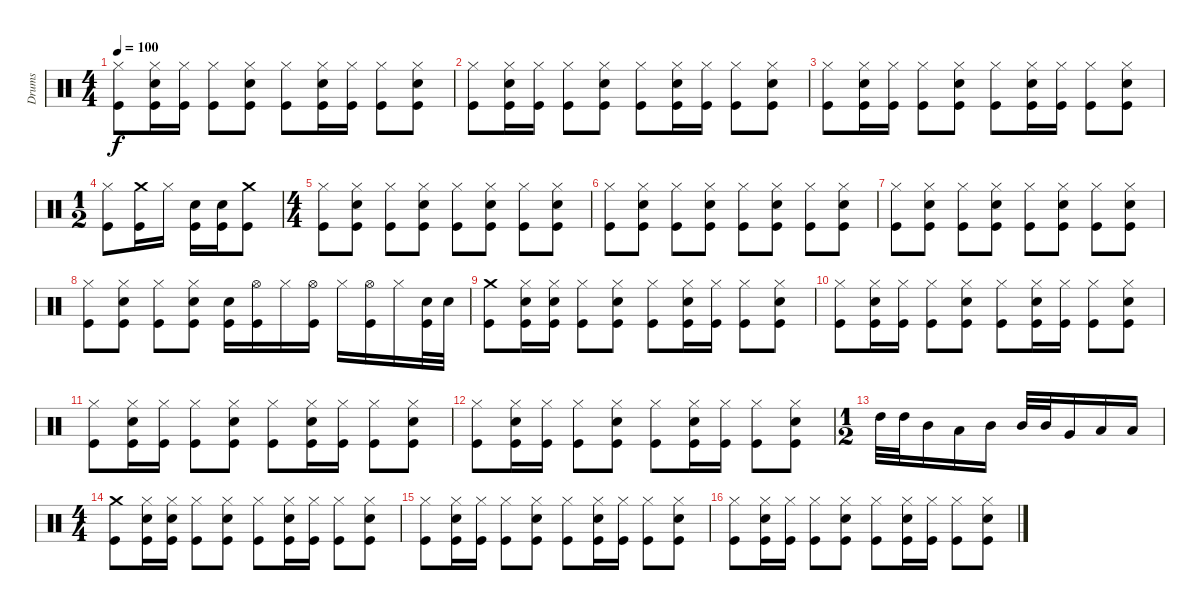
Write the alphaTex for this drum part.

\track ("Drums" "Drums") {instrument percussion}
\staff {score}
\articulation defaults
\ts (4 4)
\tempo 100
\clef neutral
\ks c
("Hi-Hat (closed)" "Kick (hit)").8{dy f} ("Electric Snare (hit)" "Hi-Hat (closed)" "Kick (hit)").16 ("Hi-Hat (closed)" "Kick (hit)").16 ("Hi-Hat (closed)" "Kick (hit)").8 ("Electric Snare (hit)" "Hi-Hat (closed)" "Kick (hit)").8 ("Hi-Hat (closed)" "Kick (hit)").8 ("Electric Snare (hit)" "Hi-Hat (closed)" "Kick (hit)").16 ("Hi-Hat (closed)" "Kick (hit)").16 ("Hi-Hat (closed)" "Kick (hit)").8 ("Electric Snare (hit)" "Hi-Hat (closed)" "Kick (hit)").8 |
("Hi-Hat (closed)" "Kick (hit)").8 ("Electric Snare (hit)" "Hi-Hat (closed)" "Kick (hit)").16 ("Hi-Hat (closed)" "Kick (hit)").16 ("Hi-Hat (closed)" "Kick (hit)").8 ("Electric Snare (hit)" "Hi-Hat (closed)" "Kick (hit)").8 ("Hi-Hat (closed)" "Kick (hit)").8 ("Electric Snare (hit)" "Hi-Hat (closed)" "Kick (hit)").16 ("Hi-Hat (closed)" "Kick (hit)").16 ("Hi-Hat (closed)" "Kick (hit)").8 ("Electric Snare (hit)" "Hi-Hat (closed)" "Kick (hit)").8 |
("Hi-Hat (closed)" "Kick (hit)").8 ("Electric Snare (hit)" "Hi-Hat (closed)" "Kick (hit)").16 ("Hi-Hat (closed)" "Kick (hit)").16 ("Hi-Hat (closed)" "Kick (hit)").8 ("Electric Snare (hit)" "Hi-Hat (closed)" "Kick (hit)").8 ("Hi-Hat (closed)" "Kick (hit)").8 ("Electric Snare (hit)" "Hi-Hat (closed)" "Kick (hit)").16 ("Hi-Hat (closed)" "Kick (hit)").16 ("Hi-Hat (closed)" "Kick (hit)").8 ("Electric Snare (hit)" "Hi-Hat (closed)" "Kick (hit)").8 |
\ts (1 2)
("Hi-Hat (closed)" "Kick (hit)").8 ("Crash medium (hit)" "Kick (hit)").16 "Hi-Hat (closed)".16 ("Electric Snare (hit)" "Kick (hit)").16 ("Electric Snare (hit)" "Kick (hit)").16 ("Crash medium (hit)" "Kick (hit)").8 |
\ts (4 4)
("Hi-Hat (closed)" "Kick (hit)").8 ("Electric Snare (hit)" "Hi-Hat (closed)" "Kick (hit)").8 ("Hi-Hat (closed)" "Kick (hit)").8 ("Electric Snare (hit)" "Hi-Hat (closed)" "Kick (hit)").8 ("Hi-Hat (closed)" "Kick (hit)").8 ("Electric Snare (hit)" "Hi-Hat (closed)" "Kick (hit)").8 ("Hi-Hat (closed)" "Kick (hit)").8 ("Electric Snare (hit)" "Hi-Hat (closed)" "Kick (hit)").8 |
("Hi-Hat (closed)" "Kick (hit)").8 ("Electric Snare (hit)" "Hi-Hat (closed)" "Kick (hit)").8 ("Hi-Hat (closed)" "Kick (hit)").8 ("Electric Snare (hit)" "Hi-Hat (closed)" "Kick (hit)").8 ("Hi-Hat (closed)" "Kick (hit)").8 ("Electric Snare (hit)" "Hi-Hat (closed)" "Kick (hit)").8 ("Hi-Hat (closed)" "Kick (hit)").8 ("Electric Snare (hit)" "Hi-Hat (closed)" "Kick (hit)").8 |
("Hi-Hat (closed)" "Kick (hit)").8 ("Electric Snare (hit)" "Hi-Hat (closed)" "Kick (hit)").8 ("Hi-Hat (closed)" "Kick (hit)").8 ("Electric Snare (hit)" "Hi-Hat (closed)" "Kick (hit)").8 ("Hi-Hat (closed)" "Kick (hit)").8 ("Electric Snare (hit)" "Hi-Hat (closed)" "Kick (hit)").8 ("Hi-Hat (closed)" "Kick (hit)").8 ("Electric Snare (hit)" "Hi-Hat (closed)" "Kick (hit)").8 |
("Hi-Hat (closed)" "Kick (hit)").8 ("Electric Snare (hit)" "Hi-Hat (closed)" "Kick (hit)").8 ("Hi-Hat (closed)" "Kick (hit)").8 ("Electric Snare (hit)" "Hi-Hat (closed)" "Kick (hit)").8 ("Electric Snare (hit)" "Kick (hit)").16 ("Hi-Hat (open)" "Kick (hit)").16 "Hi-Hat (closed)".16 ("Hi-Hat (open)" "Kick (hit)").16 "Hi-Hat (closed)".16 ("Hi-Hat (open)" "Kick (hit)").16 "Hi-Hat (closed)".16 ("Electric Snare (hit)" "Kick (hit)").32 "Electric Snare (hit)".32 |
("Crash medium (hit)" "Kick (hit)").8 ("Electric Snare (hit)" "Hi-Hat (closed)" "Kick (hit)").16 ("Electric Snare (hit)" "Hi-Hat (closed)" "Kick (hit)").16 ("Hi-Hat (closed)" "Kick (hit)").8 ("Electric Snare (hit)" "Hi-Hat (closed)" "Kick (hit)").8 ("Hi-Hat (closed)" "Kick (hit)").8 ("Electric Snare (hit)" "Hi-Hat (closed)" "Kick (hit)").16 ("Hi-Hat (closed)" "Kick (hit)").16 ("Hi-Hat (closed)" "Kick (hit)").8 ("Electric Snare (hit)" "Hi-Hat (closed)" "Kick (hit)").8 |
("Hi-Hat (closed)" "Kick (hit)").8 ("Electric Snare (hit)" "Hi-Hat (closed)" "Kick (hit)").16 ("Hi-Hat (closed)" "Kick (hit)").16 ("Hi-Hat (closed)" "Kick (hit)").8 ("Electric Snare (hit)" "Hi-Hat (closed)" "Kick (hit)").8 ("Hi-Hat (closed)" "Kick (hit)").8 ("Electric Snare (hit)" "Hi-Hat (closed)" "Kick (hit)").16 ("Hi-Hat (closed)" "Kick (hit)").16 ("Hi-Hat (closed)" "Kick (hit)").8 ("Electric Snare (hit)" "Hi-Hat (closed)" "Kick (hit)").8 |
("Hi-Hat (closed)" "Kick (hit)").8 ("Electric Snare (hit)" "Hi-Hat (closed)" "Kick (hit)").16 ("Hi-Hat (closed)" "Kick (hit)").16 ("Hi-Hat (closed)" "Kick (hit)").8 ("Electric Snare (hit)" "Hi-Hat (closed)" "Kick (hit)").8 ("Hi-Hat (closed)" "Kick (hit)").8 ("Electric Snare (hit)" "Hi-Hat (closed)" "Kick (hit)").16 ("Hi-Hat (closed)" "Kick (hit)").16 ("Hi-Hat (closed)" "Kick (hit)").8 ("Electric Snare (hit)" "Hi-Hat (closed)" "Kick (hit)").8 |
("Hi-Hat (closed)" "Kick (hit)").8 ("Electric Snare (hit)" "Hi-Hat (closed)" "Kick (hit)").16 ("Hi-Hat (closed)" "Kick (hit)").16 ("Hi-Hat (closed)" "Kick (hit)").8 ("Electric Snare (hit)" "Hi-Hat (closed)" "Kick (hit)").8 ("Hi-Hat (closed)" "Kick (hit)").8 ("Electric Snare (hit)" "Hi-Hat (closed)" "Kick (hit)").16 ("Hi-Hat (closed)" "Kick (hit)").16 ("Hi-Hat (closed)" "Kick (hit)").8 ("Electric Snare (hit)" "Hi-Hat (closed)" "Kick (hit)").8 |
\ts (1 2)
"High Tom (hit)".32 "High Tom (hit)".32 "Mid Tom (hit)".16 "Low Tom (hit)".16 "Mid Tom (hit)".16 "Mid Tom (hit)".32 "Mid Tom (hit)".32 "Very Low Tom (hit)".16 "Low Tom (hit)".16 "Low Floor Tom (hit)".16 |
\ts (4 4)
("Crash medium (hit)" "Kick (hit)").8 ("Electric Snare (hit)" "Hi-Hat (closed)" "Kick (hit)").16 ("Electric Snare (hit)" "Hi-Hat (closed)" "Kick (hit)").16 ("Hi-Hat (closed)" "Kick (hit)").8 ("Electric Snare (hit)" "Hi-Hat (closed)" "Kick (hit)").8 ("Hi-Hat (closed)" "Kick (hit)").8 ("Electric Snare (hit)" "Hi-Hat (closed)" "Kick (hit)").16 ("Hi-Hat (closed)" "Kick (hit)").16 ("Hi-Hat (closed)" "Kick (hit)").8 ("Electric Snare (hit)" "Hi-Hat (closed)" "Kick (hit)").8 |
("Hi-Hat (closed)" "Kick (hit)").8 ("Electric Snare (hit)" "Hi-Hat (closed)" "Kick (hit)").16 ("Hi-Hat (closed)" "Kick (hit)").16 ("Hi-Hat (closed)" "Kick (hit)").8 ("Electric Snare (hit)" "Hi-Hat (closed)" "Kick (hit)").8 ("Hi-Hat (closed)" "Kick (hit)").8 ("Electric Snare (hit)" "Hi-Hat (closed)" "Kick (hit)").16 ("Hi-Hat (closed)" "Kick (hit)").16 ("Hi-Hat (closed)" "Kick (hit)").8 ("Electric Snare (hit)" "Hi-Hat (closed)" "Kick (hit)").8 |
("Hi-Hat (closed)" "Kick (hit)").8 ("Electric Snare (hit)" "Hi-Hat (closed)" "Kick (hit)").16 ("Hi-Hat (closed)" "Kick (hit)").16 ("Hi-Hat (closed)" "Kick (hit)").8 ("Electric Snare (hit)" "Hi-Hat (closed)" "Kick (hit)").8 ("Hi-Hat (closed)" "Kick (hit)").8 ("Electric Snare (hit)" "Hi-Hat (closed)" "Kick (hit)").16 ("Hi-Hat (closed)" "Kick (hit)").16 ("Hi-Hat (closed)" "Kick (hit)").8 ("Electric Snare (hit)" "Hi-Hat (closed)" "Kick (hit)").8
